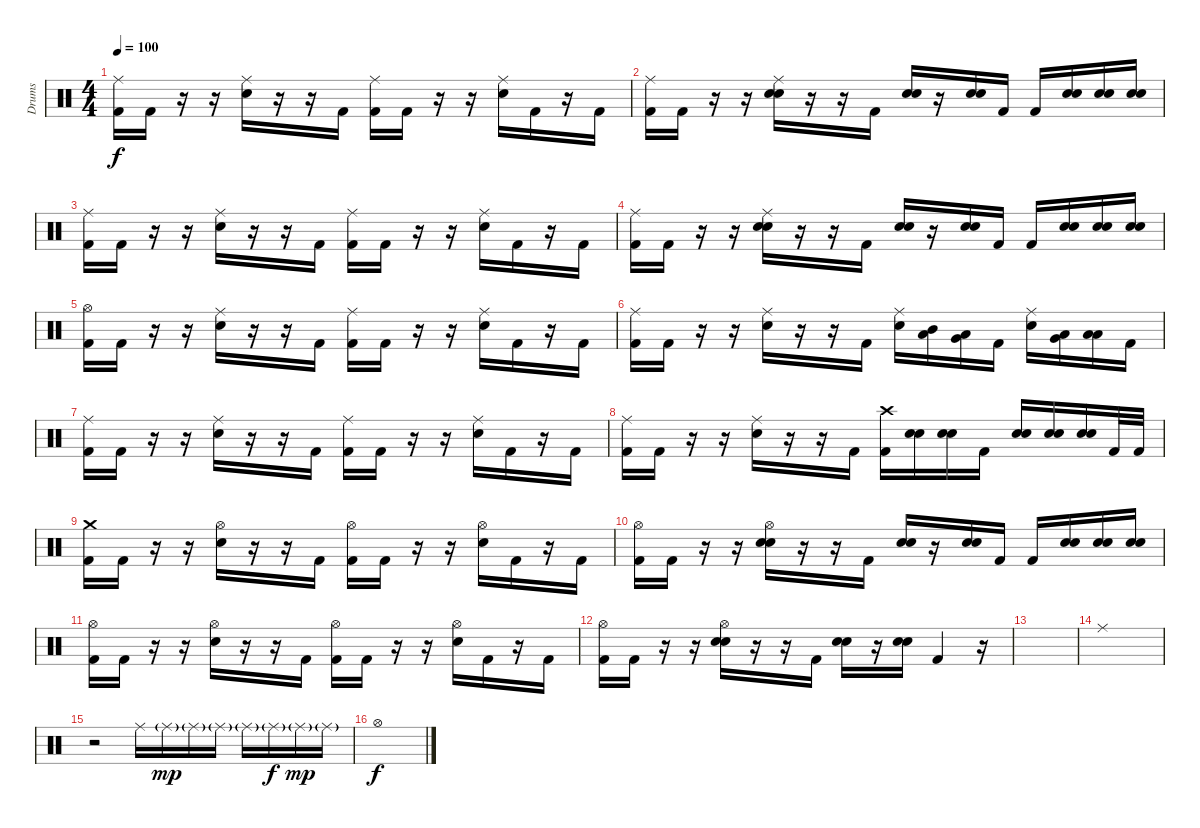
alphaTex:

\track ("Drums" "Drums") {instrument percussion}
\staff {score}
\articulation defaults
\ts (4 4)
\tempo 100
\clef neutral
\ks c
("Ride (middle)" "Kick (hit) 2").16{dy f} "Kick (hit) 2".16 r.16 r.16 ("Ride (middle)" "Electric Snare (hit)").16 r.16 r.16 "Kick (hit) 2".16 ("Ride (middle)" "Kick (hit) 2").16 "Kick (hit) 2".16 r.16 r.16 ("Ride (middle)" "Electric Snare (hit)").16 "Kick (hit) 2".16 r.16 "Kick (hit) 2".16 |
("Ride (middle)" "Kick (hit) 2").16 "Kick (hit) 2".16 r.16 r.16 ("Ride (middle)" "Electric Snare (hit)" "Electric Snare (hit)").16 r.16 r.16 "Kick (hit) 2".16 ("Electric Snare (hit)" "Electric Snare (hit)").16 r.16 ("Electric Snare (hit)" "Electric Snare (hit)").16 "Kick (hit) 2".16 "Kick (hit) 2".16 ("Electric Snare (hit)" "Electric Snare (hit)").16 ("Electric Snare (hit)" "Electric Snare (hit)").16 ("Electric Snare (hit)" "Electric Snare (hit)").16 |
("Ride (middle)" "Kick (hit) 2").16 "Kick (hit) 2".16 r.16 r.16 ("Ride (middle)" "Electric Snare (hit)").16 r.16 r.16 "Kick (hit) 2".16 ("Ride (middle)" "Kick (hit) 2").16 "Kick (hit) 2".16 r.16 r.16 ("Ride (middle)" "Electric Snare (hit)").16 "Kick (hit) 2".16 r.16 "Kick (hit) 2".16 |
("Ride (middle)" "Kick (hit) 2").16 "Kick (hit) 2".16 r.16 r.16 ("Ride (middle)" "Electric Snare (hit)" "Electric Snare (hit)").16 r.16 r.16 "Kick (hit) 2".16 ("Electric Snare (hit)" "Electric Snare (hit)").16 r.16 ("Electric Snare (hit)" "Electric Snare (hit)").16 "Kick (hit) 2".16 "Kick (hit) 2".16 ("Electric Snare (hit)" "Electric Snare (hit)").16 ("Electric Snare (hit)" "Electric Snare (hit)").16 ("Electric Snare (hit)" "Electric Snare (hit)").16 |
("Hi-Hat (open)" "Kick (hit) 2").16 "Kick (hit) 2".16 r.16 r.16 ("Ride (middle)" "Electric Snare (hit)").16 r.16 r.16 "Kick (hit) 2".16 ("Ride (middle)" "Kick (hit) 2").16 "Kick (hit) 2".16 r.16 r.16 ("Ride (middle)" "Electric Snare (hit)").16 "Kick (hit) 2".16 r.16 "Kick (hit) 2".16 |
("Ride (middle)" "Kick (hit) 2").16 "Kick (hit) 2".16 r.16 r.16 ("Ride (middle)" "Electric Snare (hit)").16 r.16 r.16 "Kick (hit) 2".16 ("Ride (middle)" "Electric Snare (hit)").16 ("Mid Tom (hit)" "Low Tom (hit)").16 ("Low Tom (hit)" "Very Low Tom (hit)").16 "Kick (hit) 2".16 ("Ride (middle)" "Electric Snare (hit)").16 ("Low Tom (hit)" "Very Low Tom (hit)").16 ("Low Tom (hit)" "Low Tom (hit)").16 "Kick (hit) 2".16 |
("Ride (middle)" "Kick (hit) 2").16 "Kick (hit) 2".16 r.16 r.16 ("Ride (middle)" "Electric Snare (hit)").16 r.16 r.16 "Kick (hit) 2".16 ("Ride (middle)" "Kick (hit) 2").16 "Kick (hit) 2".16 r.16 r.16 ("Ride (middle)" "Electric Snare (hit)").16 "Kick (hit) 2".16 r.16 "Kick (hit) 2".16 |
("Ride (middle)" "Kick (hit) 2").16 "Kick (hit) 2".16 r.16 r.16 ("Ride (middle)" "Electric Snare (hit)").16 r.16 r.16 "Kick (hit) 2".16 ("Crash high (hit)" "Kick (hit) 2").16 ("Electric Snare (hit)" "Electric Snare (hit)").16 ("Electric Snare (hit)" "Electric Snare (hit)").16 "Kick (hit) 2".16 ("Electric Snare (hit)" "Electric Snare (hit)").16 ("Electric Snare (hit)" "Electric Snare (hit)").16 ("Electric Snare (hit)" "Electric Snare (hit)").16 "Kick (hit) 2".32 "Kick (hit) 2".32 |
("Crash medium (hit)" "Kick (hit) 2").16 "Kick (hit) 2".16 r.16 r.16 ("Hi-Hat (open)" "Electric Snare (hit)").16 r.16 r.16 "Kick (hit) 2".16 ("Hi-Hat (open)" "Kick (hit) 2").16 "Kick (hit) 2".16 r.16 r.16 ("Hi-Hat (open)" "Electric Snare (hit)").16 "Kick (hit) 2".16 r.16 "Kick (hit) 2".16 |
("Hi-Hat (open)" "Kick (hit) 2").16 "Kick (hit) 2".16 r.16 r.16 ("Hi-Hat (open)" "Electric Snare (hit)" "Electric Snare (hit)").16 r.16 r.16 "Kick (hit) 2".16 ("Electric Snare (hit)" "Electric Snare (hit)").16 r.16 ("Electric Snare (hit)" "Electric Snare (hit)").16 "Kick (hit) 2".16 "Kick (hit) 2".16 ("Electric Snare (hit)" "Electric Snare (hit)").16 ("Electric Snare (hit)" "Electric Snare (hit)").16 ("Electric Snare (hit)" "Electric Snare (hit)").16 |
("Hi-Hat (open)" "Kick (hit) 2").16 "Kick (hit) 2".16 r.16 r.16 ("Hi-Hat (open)" "Electric Snare (hit)").16 r.16 r.16 "Kick (hit) 2".16 ("Hi-Hat (open)" "Kick (hit) 2").16 "Kick (hit) 2".16 r.16 r.16 ("Hi-Hat (open)" "Electric Snare (hit)").16 "Kick (hit) 2".16 r.16 "Kick (hit) 2".16 |
("Hi-Hat (open)" "Kick (hit) 2").16 "Kick (hit) 2".16 r.16 r.16 ("Hi-Hat (open)" "Electric Snare (hit)" "Electric Snare (hit)").16 r.16 r.16 "Kick (hit) 2".16 ("Electric Snare (hit)" "Electric Snare (hit)").16 r.16 ("Electric Snare (hit)" "Electric Snare (hit)").16 "Kick (hit) 2".4 r.16 |
|
"Ride (middle)".1 |
r.2{volume 0} "Ride (middle)".16{volume 16} "Ride (middle)"{g}.16{dy mp} "Ride (middle)"{g}.16 "Ride (middle)"{g}.16 "Ride (middle)"{g}.16 "Ride (middle)"{g}.16{dy f} "Ride (middle)"{g}.16{dy mp} "Ride (middle)"{g}.16 |
"Hi-Hat (open)".1{dy f}
